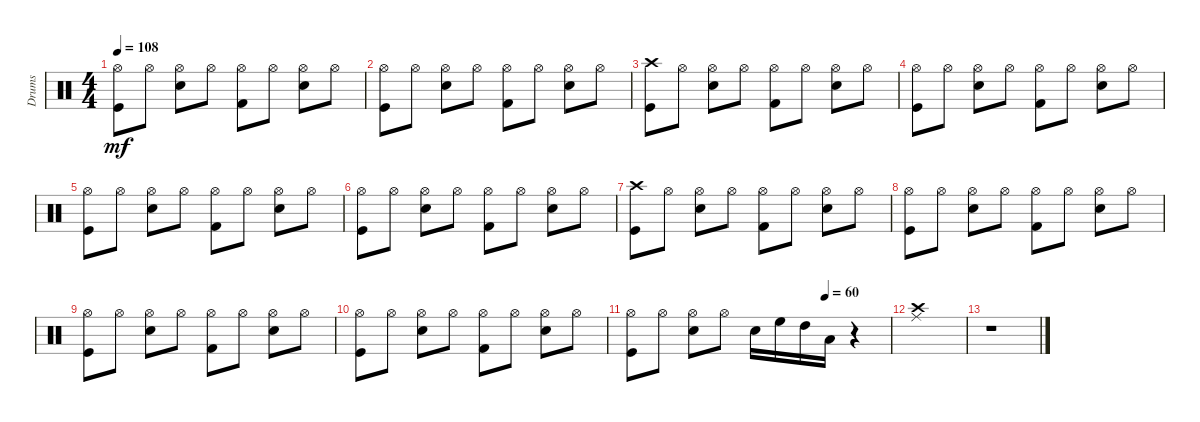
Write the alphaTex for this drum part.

\track ("Drums" "Drums") {instrument percussion}
\staff {score}
\articulation defaults
\ts (4 4)
\tempo 108
\clef neutral
\ks c
("Hi-Hat (open)" "Kick (hit)").8{dy mf} "Hi-Hat (open)".8 ("Hi-Hat (open)" "Snare (hit) 2").8 "Hi-Hat (open)".8 ("Hi-Hat (open)" "Kick (hit) 2").8 "Hi-Hat (open)".8 ("Hi-Hat (open)" "Snare (hit) 2").8 "Hi-Hat (open)".8 |
("Hi-Hat (open)" "Kick (hit)").8 "Hi-Hat (open)".8 ("Hi-Hat (open)" "Snare (hit) 2").8 "Hi-Hat (open)".8 ("Hi-Hat (open)" "Kick (hit) 2").8 "Hi-Hat (open)".8 ("Hi-Hat (open)" "Snare (hit) 2").8 "Hi-Hat (open)".8 |
("Crash high (hit)" "Kick (hit)").8 "Hi-Hat (open)".8 ("Hi-Hat (open)" "Snare (hit) 2").8 "Hi-Hat (open)".8 ("Hi-Hat (open)" "Kick (hit) 2").8 "Hi-Hat (open)".8 ("Hi-Hat (open)" "Snare (hit) 2").8 "Hi-Hat (open)".8 |
("Hi-Hat (open)" "Kick (hit)").8 "Hi-Hat (open)".8 ("Hi-Hat (open)" "Snare (hit) 2").8 "Hi-Hat (open)".8 ("Hi-Hat (open)" "Kick (hit) 2").8 "Hi-Hat (open)".8 ("Hi-Hat (open)" "Snare (hit) 2").8 "Hi-Hat (open)".8 |
("Hi-Hat (open)" "Kick (hit)").8 "Hi-Hat (open)".8 ("Hi-Hat (open)" "Snare (hit) 2").8 "Hi-Hat (open)".8 ("Hi-Hat (open)" "Kick (hit) 2").8 "Hi-Hat (open)".8 ("Hi-Hat (open)" "Snare (hit) 2").8 "Hi-Hat (open)".8 |
("Hi-Hat (open)" "Kick (hit)").8 "Hi-Hat (open)".8 ("Hi-Hat (open)" "Snare (hit) 2").8 "Hi-Hat (open)".8 ("Hi-Hat (open)" "Kick (hit) 2").8 "Hi-Hat (open)".8 ("Hi-Hat (open)" "Snare (hit) 2").8 "Hi-Hat (open)".8 |
("Crash high (hit)" "Kick (hit)").8 "Hi-Hat (open)".8 ("Hi-Hat (open)" "Snare (hit) 2").8 "Hi-Hat (open)".8 ("Hi-Hat (open)" "Kick (hit) 2").8 "Hi-Hat (open)".8 ("Hi-Hat (open)" "Snare (hit) 2").8 "Hi-Hat (open)".8 |
("Hi-Hat (open)" "Kick (hit)").8 "Hi-Hat (open)".8 ("Hi-Hat (open)" "Snare (hit) 2").8 "Hi-Hat (open)".8 ("Hi-Hat (open)" "Kick (hit) 2").8 "Hi-Hat (open)".8 ("Hi-Hat (open)" "Snare (hit) 2").8 "Hi-Hat (open)".8 |
("Hi-Hat (open)" "Kick (hit)").8 "Hi-Hat (open)".8 ("Hi-Hat (open)" "Snare (hit) 2").8 "Hi-Hat (open)".8 ("Hi-Hat (open)" "Kick (hit) 2").8 "Hi-Hat (open)".8 ("Hi-Hat (open)" "Snare (hit) 2").8 "Hi-Hat (open)".8 |
("Hi-Hat (open)" "Kick (hit)").8 "Hi-Hat (open)".8 ("Hi-Hat (open)" "Snare (hit) 2").8 "Hi-Hat (open)".8 ("Hi-Hat (open)" "Kick (hit) 2").8 "Hi-Hat (open)".8 ("Hi-Hat (open)" "Snare (hit) 2").8 "Hi-Hat (open)".8 |
\tempo (60 0.75)
("Kick (hit)" "Hi-Hat (open)").8 "Hi-Hat (open)".8 ("Snare (hit) 2" "Hi-Hat (open)").8 "Hi-Hat (open)".8 "Snare (hit) 2".16 "High Floor Tom (hit)".16 "High Tom (hit)".16 "Low Floor Tom (hit)".16 r.4 |
("Crash high (hit)" "Ride (middle)").1 |
r.1
